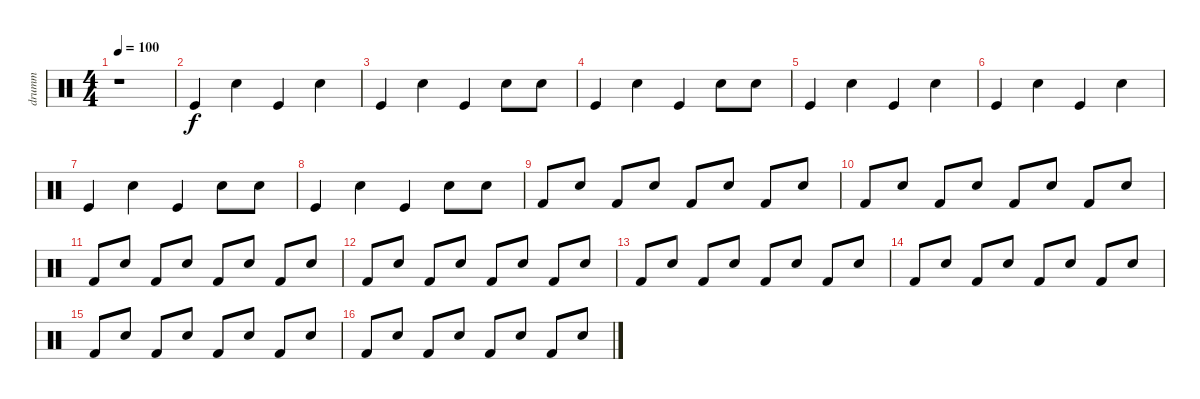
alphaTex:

\track ("drumm" "drumm") {instrument percussion}
\staff {score}
\articulation defaults
\ts (4 4)
\tempo 100
\clef neutral
\ks c
r.1{dy f} |
"Kick (hit)".4 "Snare (hit) 2".4 "Kick (hit)".4 "Snare (hit) 2".4 |
"Kick (hit)".4 "Snare (hit) 2".4 "Kick (hit)".4 "Snare (hit) 2".8 "Snare (hit) 2".8 |
"Kick (hit)".4 "Snare (hit) 2".4 "Kick (hit)".4 "Snare (hit) 2".8 "Snare (hit) 2".8 |
"Kick (hit)".4 "Snare (hit) 2".4 "Kick (hit)".4 "Snare (hit) 2".4 |
"Kick (hit)".4 "Snare (hit) 2".4 "Kick (hit)".4 "Snare (hit) 2".4 |
"Kick (hit)".4 "Snare (hit) 2".4 "Kick (hit)".4 "Snare (hit) 2".8 "Snare (hit) 2".8 |
"Kick (hit)".4 "Snare (hit) 2".4 "Kick (hit)".4 "Snare (hit) 2".8 "Snare (hit) 2".8 |
"Kick (hit) 2".8 "Snare (hit) 2".8 "Kick (hit) 2".8 "Snare (hit) 2".8 "Kick (hit) 2".8 "Snare (hit) 2".8 "Kick (hit) 2".8 "Snare (hit) 2".8 |
"Kick (hit) 2".8 "Snare (hit) 2".8 "Kick (hit) 2".8 "Snare (hit) 2".8 "Kick (hit) 2".8 "Snare (hit) 2".8 "Kick (hit) 2".8 "Snare (hit) 2".8 |
"Kick (hit) 2".8 "Snare (hit) 2".8 "Kick (hit) 2".8 "Snare (hit) 2".8 "Kick (hit) 2".8 "Snare (hit) 2".8 "Kick (hit) 2".8 "Snare (hit) 2".8 |
"Kick (hit) 2".8 "Snare (hit) 2".8 "Kick (hit) 2".8 "Snare (hit) 2".8 "Kick (hit) 2".8 "Snare (hit) 2".8 "Kick (hit) 2".8 "Snare (hit) 2".8 |
"Kick (hit) 2".8 "Snare (hit) 2".8 "Kick (hit) 2".8 "Snare (hit) 2".8 "Kick (hit) 2".8 "Snare (hit) 2".8 "Kick (hit) 2".8 "Snare (hit) 2".8 |
"Kick (hit) 2".8 "Snare (hit) 2".8 "Kick (hit) 2".8 "Snare (hit) 2".8 "Kick (hit) 2".8 "Snare (hit) 2".8 "Kick (hit) 2".8 "Snare (hit) 2".8 |
"Kick (hit) 2".8 "Snare (hit) 2".8 "Kick (hit) 2".8 "Snare (hit) 2".8 "Kick (hit) 2".8 "Snare (hit) 2".8 "Kick (hit) 2".8 "Snare (hit) 2".8 |
"Kick (hit) 2".8 "Snare (hit) 2".8 "Kick (hit) 2".8 "Snare (hit) 2".8 "Kick (hit) 2".8 "Snare (hit) 2".8 "Kick (hit) 2".8 "Snare (hit) 2".8
